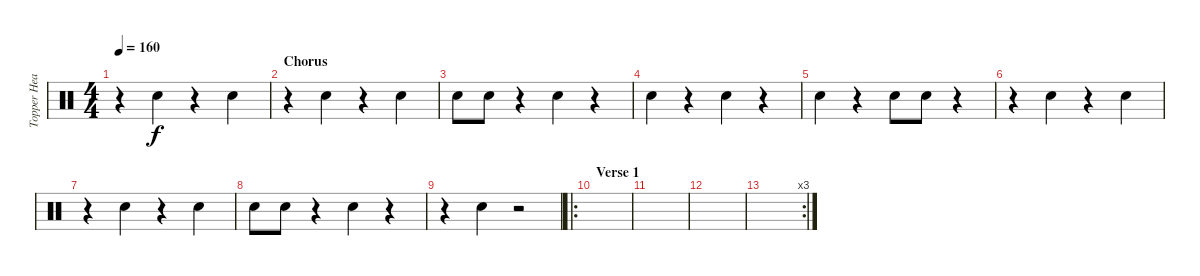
\track ("Topper Headon" "Topper Hea") {instrument percussion}
\staff {score}
\articulation defaults
\ts (4 4)
\tempo 160
\clef neutral
\ks c
r.4{dy f} "Hand Clap (hit)".4 r.4 "Hand Clap (hit)".4 |
\section ("" "Chorus")
r.4 "Hand Clap (hit)".4 r.4 "Hand Clap (hit)".4 |
"Hand Clap (hit)".8 "Hand Clap (hit)".8 r.4 "Hand Clap (hit)".4 r.4 |
"Hand Clap (hit)".4 r.4 "Hand Clap (hit)".4 r.4 |
"Hand Clap (hit)".4 r.4 "Hand Clap (hit)".8 "Hand Clap (hit)".8 r.4 |
r.4 "Hand Clap (hit)".4 r.4 "Hand Clap (hit)".4 |
r.4 "Hand Clap (hit)".4 r.4 "Hand Clap (hit)".4 |
"Hand Clap (hit)".8 "Hand Clap (hit)".8 r.4 "Hand Clap (hit)".4 r.4 |
r.4 "Hand Clap (hit)".4 r.2 |
\ro
\section ("" "Verse 1")
|
|
|
\rc 3
